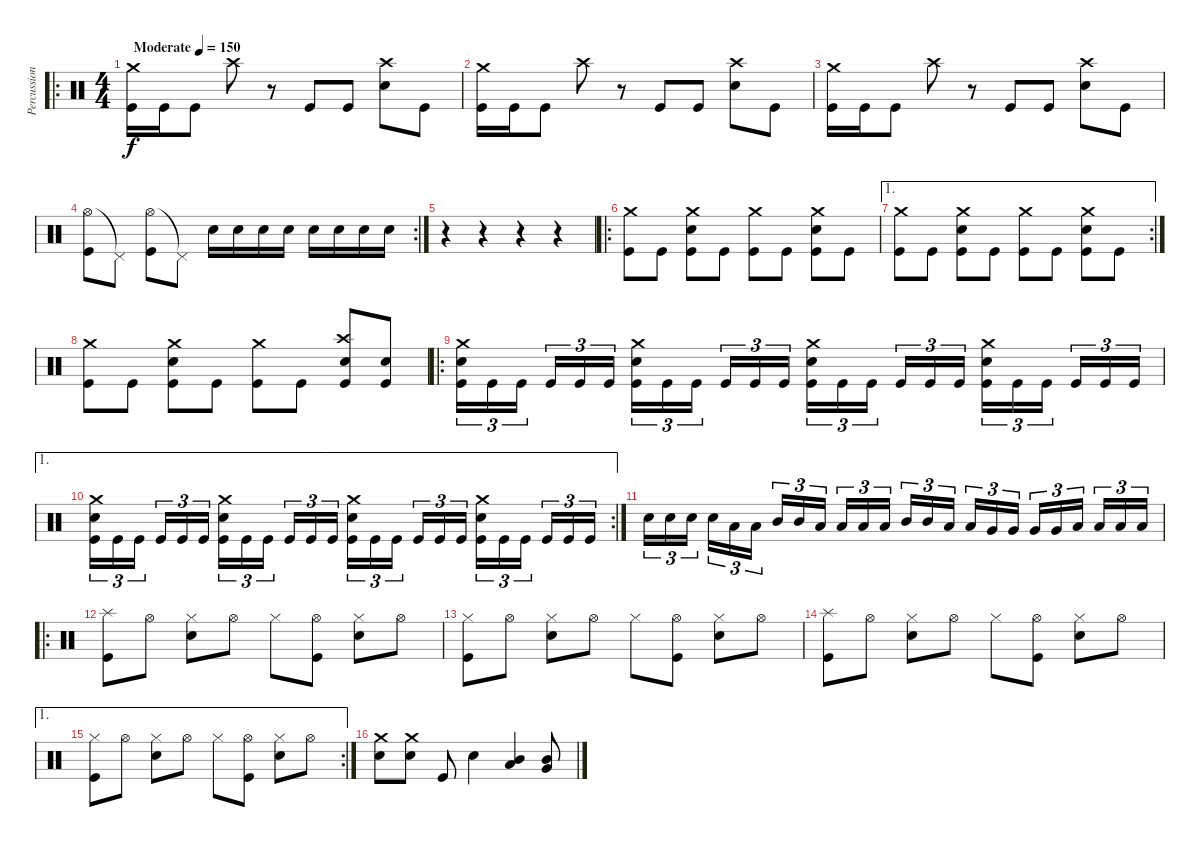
\track ("Percussion" "Percussion") {instrument percussion}
\staff {score}
\articulation defaults
\ro
\ts (4 4)
\tempo (150 "Moderate")
\clef neutral
\ks c
("Crash medium (hit)" "Kick (hit)").16{dy f} "Kick (hit)".16 "Kick (hit)".8 "Crash high (hit)".8 r.8 "Kick (hit)".8 "Kick (hit)".8 ("Crash high (hit)" "Electric Snare (hit)").8 "Kick (hit)".8 |
("Crash medium (hit)" "Kick (hit)").16 "Kick (hit)".16 "Kick (hit)".8 "Crash high (hit)".8 r.8 "Kick (hit)".8 "Kick (hit)".8 ("Crash high (hit)" "Electric Snare (hit)").8 "Kick (hit)".8 |
("Crash medium (hit)" "Kick (hit)").16 "Kick (hit)".16 "Kick (hit)".8 "Crash high (hit)".8 r.8 "Kick (hit)".8 "Kick (hit)".8 ("Crash high (hit)" "Electric Snare (hit)").8 "Kick (hit)".8 |
\rc 2
("Hi-Hat (open)" "Kick (hit)").8 "Pedal Hi-Hat (hit)"{t}.8 ("Hi-Hat (open)" "Kick (hit)").8 "Pedal Hi-Hat (hit)"{t}.8 "Electric Snare (hit)".16 "Electric Snare (hit)".16 "Electric Snare (hit)".16 "Electric Snare (hit)".16 "Electric Snare (hit)".16 "Electric Snare (hit)".16 "Electric Snare (hit)".16 "Electric Snare (hit)".16 |
r.4 r.4 r.4 r.4 |
\ro
("Crash medium (hit)" "Kick (hit)").8 "Kick (hit)".8 ("Crash medium (hit)" "Electric Snare (hit)" "Kick (hit)").8 "Kick (hit)".8 ("Crash medium (hit)" "Kick (hit)").8 "Kick (hit)".8 ("Crash medium (hit)" "Electric Snare (hit)" "Kick (hit)").8 "Kick (hit)".8 |
\ae 1
\rc 2
("Crash medium (hit)" "Kick (hit)").8 "Kick (hit)".8 ("Crash medium (hit)" "Electric Snare (hit)" "Kick (hit)").8 "Kick (hit)".8 ("Crash medium (hit)" "Kick (hit)").8 "Kick (hit)".8 ("Crash medium (hit)" "Electric Snare (hit)" "Kick (hit)").8 "Kick (hit)".8 |
("Crash medium (hit)" "Kick (hit)").8 "Kick (hit)".8 ("Crash medium (hit)" "Electric Snare (hit)" "Kick (hit)").8 "Kick (hit)".8 ("Crash medium (hit)" "Kick (hit)").8 "Kick (hit)".8 ("Crash high (hit)" "Electric Snare (hit)" "Kick (hit)").8 ("Electric Snare (hit)" "Kick (hit)").8 |
\ro
("Crash medium (hit)" "Electric Snare (hit)" "Kick (hit)").16{tu (3 2)} "Kick (hit)".16{tu (3 2)} "Kick (hit)".16{tu (3 2) beam splitsecondary} "Kick (hit)".16{tu (3 2)} "Kick (hit)".16{tu (3 2)} "Kick (hit)".16{tu (3 2)} ("Crash medium (hit)" "Electric Snare (hit)" "Kick (hit)").16{tu (3 2)} "Kick (hit)".16{tu (3 2)} "Kick (hit)".16{tu (3 2) beam splitsecondary} "Kick (hit)".16{tu (3 2)} "Kick (hit)".16{tu (3 2)} "Kick (hit)".16{tu (3 2)} ("Crash medium (hit)" "Electric Snare (hit)" "Kick (hit)").16{tu (3 2)} "Kick (hit)".16{tu (3 2)} "Kick (hit)".16{tu (3 2) beam splitsecondary} "Kick (hit)".16{tu (3 2)} "Kick (hit)".16{tu (3 2)} "Kick (hit)".16{tu (3 2)} ("Crash medium (hit)" "Electric Snare (hit)" "Kick (hit)").16{tu (3 2)} "Kick (hit)".16{tu (3 2)} "Kick (hit)".16{tu (3 2) beam splitsecondary} "Kick (hit)".16{tu (3 2)} "Kick (hit)".16{tu (3 2)} "Kick (hit)".16{tu (3 2)} |
\ae 1
\rc 2
("Crash medium (hit)" "Electric Snare (hit)" "Kick (hit)").16{tu (3 2)} "Kick (hit)".16{tu (3 2)} "Kick (hit)".16{tu (3 2) beam splitsecondary} "Kick (hit)".16{tu (3 2)} "Kick (hit)".16{tu (3 2)} "Kick (hit)".16{tu (3 2)} ("Crash medium (hit)" "Electric Snare (hit)" "Kick (hit)").16{tu (3 2)} "Kick (hit)".16{tu (3 2)} "Kick (hit)".16{tu (3 2) beam splitsecondary} "Kick (hit)".16{tu (3 2)} "Kick (hit)".16{tu (3 2)} "Kick (hit)".16{tu (3 2)} ("Crash medium (hit)" "Electric Snare (hit)" "Kick (hit)").16{tu (3 2)} "Kick (hit)".16{tu (3 2)} "Kick (hit)".16{tu (3 2) beam splitsecondary} "Kick (hit)".16{tu (3 2)} "Kick (hit)".16{tu (3 2)} "Kick (hit)".16{tu (3 2)} ("Crash medium (hit)" "Electric Snare (hit)" "Kick (hit)").16{tu (3 2)} "Kick (hit)".16{tu (3 2)} "Kick (hit)".16{tu (3 2) beam splitsecondary} "Kick (hit)".16{tu (3 2)} "Kick (hit)".16{tu (3 2)} "Kick (hit)".16{tu (3 2)} |
"Electric Snare (hit)".16{tu (3 2)} "Electric Snare (hit)".16{tu (3 2)} "Electric Snare (hit)".16{tu (3 2) beam splitsecondary} "Electric Snare (hit)".16{tu (3 2)} "Low Tom (hit)".16{tu (3 2)} "Low Tom (hit)".16{tu (3 2)} "Mid Tom (hit)".16{tu (3 2)} "Mid Tom (hit)".16{tu (3 2)} "Low Floor Tom (hit)".16{tu (3 2) beam splitsecondary} "Low Floor Tom (hit)".16{tu (3 2)} "Low Floor Tom (hit)".16{tu (3 2)} "Low Floor Tom (hit)".16{tu (3 2)} "Mid Tom (hit)".16{tu (3 2)} "Mid Tom (hit)".16{tu (3 2)} "Low Tom (hit)".16{tu (3 2) beam splitsecondary} "Low Tom (hit)".16{tu (3 2)} "Very Low Tom (hit)".16{tu (3 2)} "Very Low Tom (hit)".16{tu (3 2)} "Very Low Tom (hit)".16{tu (3 2)} "Very Low Tom (hit)".16{tu (3 2)} "Low Tom (hit)".16{tu (3 2) beam splitsecondary} "Low Tom (hit)".16{tu (3 2)} "Low Tom (hit)".16{tu (3 2)} "Low Tom (hit)".16{tu (3 2)} |
\ro
("Splash (hit)" "Kick (hit)").8 "Hi-Hat (open)".8 ("Hi-Hat (closed)" "Electric Snare (hit)").8 "Hi-Hat (open)".8 "Hi-Hat (closed)".8 ("Hi-Hat (open)" "Kick (hit)").8 ("Hi-Hat (closed)" "Electric Snare (hit)").8 "Hi-Hat (open)".8 |
("Hi-Hat (closed)" "Kick (hit)").8 "Hi-Hat (open)".8 ("Hi-Hat (closed)" "Electric Snare (hit)").8 "Hi-Hat (open)".8 "Hi-Hat (closed)".8 ("Hi-Hat (open)" "Kick (hit)").8 ("Hi-Hat (closed)" "Electric Snare (hit)").8 "Hi-Hat (open)".8 |
("Splash (hit)" "Kick (hit)").8 "Hi-Hat (open)".8 ("Hi-Hat (closed)" "Electric Snare (hit)").8 "Hi-Hat (open)".8 "Hi-Hat (closed)".8 ("Hi-Hat (open)" "Kick (hit)").8 ("Hi-Hat (closed)" "Electric Snare (hit)").8 "Hi-Hat (open)".8 |
\ae 1
\rc 2
("Hi-Hat (closed)" "Kick (hit)").8 "Hi-Hat (open)".8 ("Hi-Hat (closed)" "Electric Snare (hit)").8 "Hi-Hat (open)".8 "Hi-Hat (closed)".8 ("Hi-Hat (open)" "Kick (hit)").8 ("Hi-Hat (closed)" "Electric Snare (hit)").8 "Hi-Hat (open)".8 |
("Crash medium (hit)" "Electric Snare (hit)").8 ("Crash medium (hit)" "Electric Snare (hit)").8 "Kick (hit)".8 "Electric Snare (hit)".4 ("Mid Tom (hit)" "Low Tom (hit)").4 ("Very Low Tom (hit)" "Mid Tom (hit)").8
